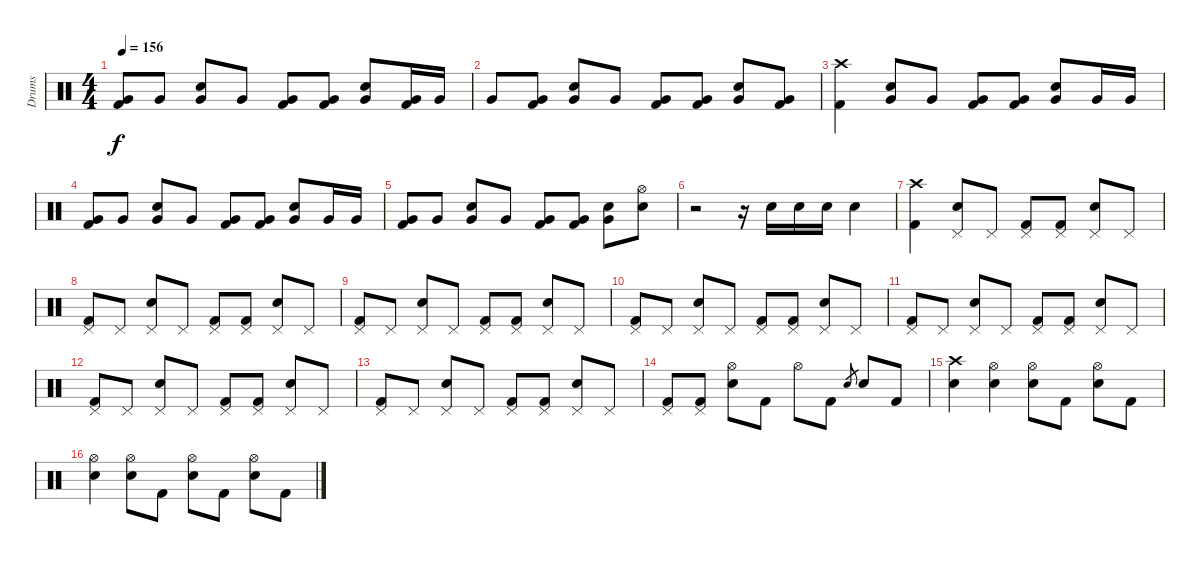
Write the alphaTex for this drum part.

\track ("Drums" "Drums") {instrument percussion}
\staff {score}
\articulation defaults
\ts (4 4)
\tempo 156
\clef neutral
\ks c
("Very Low Tom (hit)" "Kick (hit) 2").8{dy f} "Very Low Tom (hit)".8 ("Very Low Tom (hit)" "Electric Snare (hit)").8 "Very Low Tom (hit)".8 ("Very Low Tom (hit)" "Kick (hit) 2").8 ("Very Low Tom (hit)" "Kick (hit) 2").8 ("Very Low Tom (hit)" "Electric Snare (hit)").8 ("Very Low Tom (hit)" "Kick (hit) 2").16 "Very Low Tom (hit)".16 |
"Very Low Tom (hit)".8 ("Very Low Tom (hit)" "Kick (hit) 2").8 ("Very Low Tom (hit)" "Electric Snare (hit)").8 "Very Low Tom (hit)".8 ("Very Low Tom (hit)" "Kick (hit) 2").8 ("Very Low Tom (hit)" "Kick (hit) 2").8 ("Very Low Tom (hit)" "Electric Snare (hit)").8 ("Very Low Tom (hit)" "Kick (hit) 2").8 |
("Crash high (hit)" "Kick (hit) 2").4 ("Very Low Tom (hit)" "Electric Snare (hit)").8 "Very Low Tom (hit)".8 ("Very Low Tom (hit)" "Kick (hit) 2").8 ("Very Low Tom (hit)" "Kick (hit) 2").8 ("Very Low Tom (hit)" "Electric Snare (hit)").8 "Very Low Tom (hit)".16 "Very Low Tom (hit)".16 |
("Very Low Tom (hit)" "Kick (hit) 2").8 "Very Low Tom (hit)".8 ("Very Low Tom (hit)" "Electric Snare (hit)").8 "Very Low Tom (hit)".8 ("Very Low Tom (hit)" "Kick (hit) 2").8 ("Very Low Tom (hit)" "Kick (hit) 2").8 ("Very Low Tom (hit)" "Electric Snare (hit)").8 "Very Low Tom (hit)".16 "Very Low Tom (hit)".16 |
("Very Low Tom (hit)" "Kick (hit) 2").8 "Very Low Tom (hit)".8 ("Very Low Tom (hit)" "Electric Snare (hit)").8 "Very Low Tom (hit)".8 ("Very Low Tom (hit)" "Kick (hit) 2").8 ("Very Low Tom (hit)" "Kick (hit) 2").8 ("Very Low Tom (hit)" "Electric Snare (hit)").8 ("Hi-Hat (open)" "Electric Snare (hit)").8 |
r.2 r.16 "Electric Snare (hit)".16 "Electric Snare (hit)".16 "Electric Snare (hit)".16 "Electric Snare (hit)".4 |
("Crash high (hit)" "Kick (hit) 2").4 ("Pedal Hi-Hat (hit)" "Electric Snare (hit)").8 "Pedal Hi-Hat (hit)".8 ("Pedal Hi-Hat (hit)" "Kick (hit) 2").8 ("Pedal Hi-Hat (hit)" "Kick (hit) 2").8 ("Pedal Hi-Hat (hit)" "Electric Snare (hit)").8 "Pedal Hi-Hat (hit)".8 |
("Pedal Hi-Hat (hit)" "Kick (hit) 2").8 "Pedal Hi-Hat (hit)".8 ("Pedal Hi-Hat (hit)" "Electric Snare (hit)").8 "Pedal Hi-Hat (hit)".8 ("Pedal Hi-Hat (hit)" "Kick (hit) 2").8 ("Pedal Hi-Hat (hit)" "Kick (hit) 2").8 ("Pedal Hi-Hat (hit)" "Electric Snare (hit)").8 "Pedal Hi-Hat (hit)".8 |
("Pedal Hi-Hat (hit)" "Kick (hit) 2").8 "Pedal Hi-Hat (hit)".8 ("Pedal Hi-Hat (hit)" "Electric Snare (hit)").8 "Pedal Hi-Hat (hit)".8 ("Pedal Hi-Hat (hit)" "Kick (hit) 2").8 ("Pedal Hi-Hat (hit)" "Kick (hit) 2").8 ("Pedal Hi-Hat (hit)" "Electric Snare (hit)").8 "Pedal Hi-Hat (hit)".8 |
("Pedal Hi-Hat (hit)" "Kick (hit) 2").8 "Pedal Hi-Hat (hit)".8 ("Pedal Hi-Hat (hit)" "Electric Snare (hit)").8 "Pedal Hi-Hat (hit)".8 ("Pedal Hi-Hat (hit)" "Kick (hit) 2").8 ("Pedal Hi-Hat (hit)" "Kick (hit) 2").8 ("Pedal Hi-Hat (hit)" "Electric Snare (hit)").8 "Pedal Hi-Hat (hit)".8 |
("Pedal Hi-Hat (hit)" "Kick (hit) 2").8 "Pedal Hi-Hat (hit)".8 ("Pedal Hi-Hat (hit)" "Electric Snare (hit)").8 "Pedal Hi-Hat (hit)".8 ("Pedal Hi-Hat (hit)" "Kick (hit) 2").8 ("Pedal Hi-Hat (hit)" "Kick (hit) 2").8 ("Pedal Hi-Hat (hit)" "Electric Snare (hit)").8 "Pedal Hi-Hat (hit)".8 |
("Pedal Hi-Hat (hit)" "Kick (hit) 2").8 "Pedal Hi-Hat (hit)".8 ("Pedal Hi-Hat (hit)" "Electric Snare (hit)").8 "Pedal Hi-Hat (hit)".8 ("Pedal Hi-Hat (hit)" "Kick (hit) 2").8 ("Pedal Hi-Hat (hit)" "Kick (hit) 2").8 ("Pedal Hi-Hat (hit)" "Electric Snare (hit)").8 "Pedal Hi-Hat (hit)".8 |
("Pedal Hi-Hat (hit)" "Kick (hit) 2").8 "Pedal Hi-Hat (hit)".8 ("Pedal Hi-Hat (hit)" "Electric Snare (hit)").8 "Pedal Hi-Hat (hit)".8 ("Pedal Hi-Hat (hit)" "Kick (hit) 2").8 ("Pedal Hi-Hat (hit)" "Kick (hit) 2").8 ("Pedal Hi-Hat (hit)" "Electric Snare (hit)").8 "Pedal Hi-Hat (hit)".8 |
("Pedal Hi-Hat (hit)" "Kick (hit) 2").8 ("Pedal Hi-Hat (hit)" "Kick (hit) 2").8 ("Hi-Hat (open)" "Electric Snare (hit)").8 "Kick (hit) 2".8 "Hi-Hat (open)".8 "Kick (hit) 2".8 "Electric Snare (hit)".8{gr} "Electric Snare (hit)".8 "Kick (hit) 2".8 |
("Crash high (hit)" "Electric Snare (hit)").4 ("Hi-Hat (open)" "Electric Snare (hit)").4 ("Hi-Hat (open)" "Electric Snare (hit)").8 "Kick (hit) 2".8 ("Hi-Hat (open)" "Electric Snare (hit)").8 "Kick (hit) 2".8 |
("Hi-Hat (open)" "Electric Snare (hit)").4 ("Hi-Hat (open)" "Electric Snare (hit)").8 "Kick (hit) 2".8 ("Hi-Hat (open)" "Electric Snare (hit)").8 "Kick (hit) 2".8 ("Hi-Hat (open)" "Electric Snare (hit)").8 "Kick (hit) 2".8
